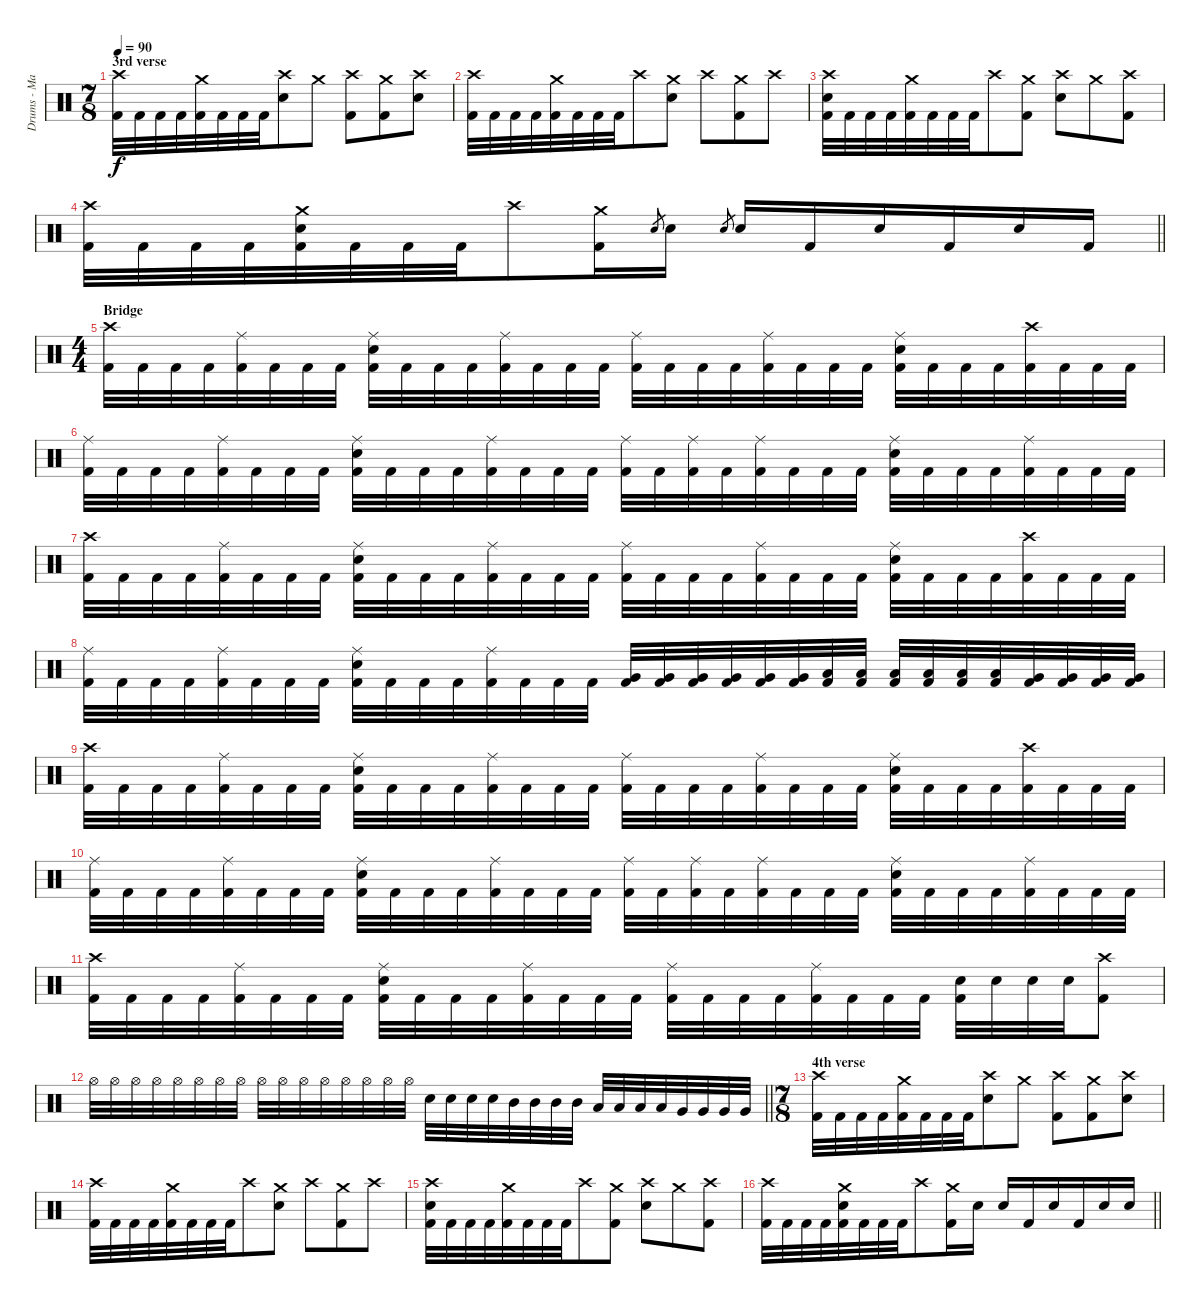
\track ("Drums - Mario Duplantier" "Drums - Ma") {instrument percussion}
\staff {score}
\articulation defaults
\ts (7 8)
\section ("" "3rd verse")
\tempo 90
\clef neutral
\ks c
("Crash high (hit)" "Kick (hit) 2").32{dy f} "Kick (hit) 2".32 "Kick (hit) 2".32 "Kick (hit) 2".32 ("Crash medium (hit)" "Kick (hit) 2").32 "Kick (hit) 2".32 "Kick (hit) 2".32 "Kick (hit) 2".32 ("Crash high (hit)" "Electric Snare (hit)").8 "Crash medium (hit)".8 ("Crash high (hit)" "Kick (hit) 2").8 ("Crash medium (hit)" "Kick (hit) 2").8 ("Crash high (hit)" "Electric Snare (hit)").8 |
("Crash high (hit)" "Kick (hit) 2").32 "Kick (hit) 2".32 "Kick (hit) 2".32 "Kick (hit) 2".32 ("Crash medium (hit)" "Kick (hit) 2").32 "Kick (hit) 2".32 "Kick (hit) 2".32 "Kick (hit) 2".32 "Crash high (hit)".8 ("Crash medium (hit)" "Electric Snare (hit)").8 "Crash high (hit)".8 ("Crash medium (hit)" "Kick (hit) 2").8 "Crash high (hit)".8 |
("Crash high (hit)" "Electric Snare (hit)" "Kick (hit) 2").32 "Kick (hit) 2".32 "Kick (hit) 2".32 "Kick (hit) 2".32 ("Crash medium (hit)" "Kick (hit) 2").32 "Kick (hit) 2".32 "Kick (hit) 2".32 "Kick (hit) 2".32 "Crash high (hit)".8 ("Crash medium (hit)" "Kick (hit) 2").8 ("Crash high (hit)" "Electric Snare (hit)").8 "Crash medium (hit)".8 ("Crash high (hit)" "Kick (hit) 2").8 |
\barLineRight lightlight
("Crash high (hit)" "Kick (hit) 2").32 "Kick (hit) 2".32 "Kick (hit) 2".32 "Kick (hit) 2".32 ("Crash medium (hit)" "Electric Snare (hit)" "Kick (hit) 2").32 "Kick (hit) 2".32 "Kick (hit) 2".32 "Kick (hit) 2".32 "Crash high (hit)".8 ("Crash medium (hit)" "Kick (hit) 2").16 "Electric Snare (hit)".8{gr} "Electric Snare (hit)".16 "Electric Snare (hit)".8{gr} "Electric Snare (hit)".16 "Kick (hit) 2".16 "Electric Snare (hit)".16 "Kick (hit) 2".16 "Electric Snare (hit)".16 "Kick (hit) 2".16 |
\ts (4 4)
\section ("" "Bridge")
("Crash high (hit)" "Kick (hit) 2").32 "Kick (hit) 2".32 "Kick (hit) 2".32 "Kick (hit) 2".32 ("Ride (middle)" "Kick (hit) 2").32 "Kick (hit) 2".32 "Kick (hit) 2".32 "Kick (hit) 2".32 ("Ride (middle)" "Electric Snare (hit)" "Kick (hit) 2").32 "Kick (hit) 2".32 "Kick (hit) 2".32 "Kick (hit) 2".32 ("Ride (middle)" "Kick (hit) 2").32 "Kick (hit) 2".32 "Kick (hit) 2".32 "Kick (hit) 2".32 ("Ride (middle)" "Kick (hit) 2").32 "Kick (hit) 2".32 "Kick (hit) 2".32 "Kick (hit) 2".32 ("Ride (middle)" "Kick (hit) 2").32 "Kick (hit) 2".32 "Kick (hit) 2".32 "Kick (hit) 2".32 ("Ride (middle)" "Electric Snare (hit)" "Kick (hit) 2").32 "Kick (hit) 2".32 "Kick (hit) 2".32 "Kick (hit) 2".32 ("Crash high (hit)" "Kick (hit) 2").32 "Kick (hit) 2".32 "Kick (hit) 2".32 "Kick (hit) 2".32 |
("Ride (middle)" "Kick (hit) 2").32 "Kick (hit) 2".32 "Kick (hit) 2".32 "Kick (hit) 2".32 ("Ride (middle)" "Kick (hit) 2").32 "Kick (hit) 2".32 "Kick (hit) 2".32 "Kick (hit) 2".32 ("Ride (middle)" "Electric Snare (hit)" "Kick (hit) 2").32 "Kick (hit) 2".32 "Kick (hit) 2".32 "Kick (hit) 2".32 ("Ride (middle)" "Kick (hit) 2").32 "Kick (hit) 2".32 "Kick (hit) 2".32 "Kick (hit) 2".32 ("Ride (middle)" "Kick (hit) 2").32 "Kick (hit) 2".32 ("Ride (middle)" "Kick (hit) 2").32 "Kick (hit) 2".32 ("Ride (middle)" "Kick (hit) 2").32 "Kick (hit) 2".32 "Kick (hit) 2".32 "Kick (hit) 2".32 ("Ride (middle)" "Electric Snare (hit)" "Kick (hit) 2").32 "Kick (hit) 2".32 "Kick (hit) 2".32 "Kick (hit) 2".32 ("Ride (middle)" "Kick (hit) 2").32 "Kick (hit) 2".32 "Kick (hit) 2".32 "Kick (hit) 2".32 |
("Crash high (hit)" "Kick (hit) 2").32 "Kick (hit) 2".32 "Kick (hit) 2".32 "Kick (hit) 2".32 ("Ride (middle)" "Kick (hit) 2").32 "Kick (hit) 2".32 "Kick (hit) 2".32 "Kick (hit) 2".32 ("Ride (middle)" "Electric Snare (hit)" "Kick (hit) 2").32 "Kick (hit) 2".32 "Kick (hit) 2".32 "Kick (hit) 2".32 ("Ride (middle)" "Kick (hit) 2").32 "Kick (hit) 2".32 "Kick (hit) 2".32 "Kick (hit) 2".32 ("Ride (middle)" "Kick (hit) 2").32 "Kick (hit) 2".32 "Kick (hit) 2".32 "Kick (hit) 2".32 ("Ride (middle)" "Kick (hit) 2").32 "Kick (hit) 2".32 "Kick (hit) 2".32 "Kick (hit) 2".32 ("Ride (middle)" "Electric Snare (hit)" "Kick (hit) 2").32 "Kick (hit) 2".32 "Kick (hit) 2".32 "Kick (hit) 2".32 ("Crash high (hit)" "Kick (hit) 2").32 "Kick (hit) 2".32 "Kick (hit) 2".32 "Kick (hit) 2".32 |
("Ride (middle)" "Kick (hit) 2").32 "Kick (hit) 2".32 "Kick (hit) 2".32 "Kick (hit) 2".32 ("Ride (middle)" "Kick (hit) 2").32 "Kick (hit) 2".32 "Kick (hit) 2".32 "Kick (hit) 2".32 ("Ride (middle)" "Electric Snare (hit)" "Kick (hit) 2").32 "Kick (hit) 2".32 "Kick (hit) 2".32 "Kick (hit) 2".32 ("Ride (middle)" "Kick (hit) 2").32 "Kick (hit) 2".32 "Kick (hit) 2".32 "Kick (hit) 2".32 ("Very Low Tom (hit)" "Kick (hit) 2").32 ("Very Low Tom (hit)" "Kick (hit) 2").32 ("Very Low Tom (hit)" "Kick (hit) 2").32 ("Very Low Tom (hit)" "Kick (hit) 2").32 ("Very Low Tom (hit)" "Kick (hit) 2").32 ("Very Low Tom (hit)" "Kick (hit) 2").32 ("Low Tom (hit)" "Kick (hit) 2").32 ("Low Tom (hit)" "Kick (hit) 2").32 ("Low Tom (hit)" "Kick (hit) 2").32 ("Low Tom (hit)" "Kick (hit) 2").32 ("Low Tom (hit)" "Kick (hit) 2").32 ("Low Tom (hit)" "Kick (hit) 2").32 ("Very Low Tom (hit)" "Kick (hit) 2").32 ("Very Low Tom (hit)" "Kick (hit) 2").32 ("Very Low Tom (hit)" "Kick (hit) 2").32 ("Very Low Tom (hit)" "Kick (hit) 2").32 |
("Crash high (hit)" "Kick (hit) 2").32 "Kick (hit) 2".32 "Kick (hit) 2".32 "Kick (hit) 2".32 ("Ride (middle)" "Kick (hit) 2").32 "Kick (hit) 2".32 "Kick (hit) 2".32 "Kick (hit) 2".32 ("Ride (middle)" "Electric Snare (hit)" "Kick (hit) 2").32 "Kick (hit) 2".32 "Kick (hit) 2".32 "Kick (hit) 2".32 ("Ride (middle)" "Kick (hit) 2").32 "Kick (hit) 2".32 "Kick (hit) 2".32 "Kick (hit) 2".32 ("Ride (middle)" "Kick (hit) 2").32 "Kick (hit) 2".32 "Kick (hit) 2".32 "Kick (hit) 2".32 ("Ride (middle)" "Kick (hit) 2").32 "Kick (hit) 2".32 "Kick (hit) 2".32 "Kick (hit) 2".32 ("Ride (middle)" "Electric Snare (hit)" "Kick (hit) 2").32 "Kick (hit) 2".32 "Kick (hit) 2".32 "Kick (hit) 2".32 ("Crash high (hit)" "Kick (hit) 2").32 "Kick (hit) 2".32 "Kick (hit) 2".32 "Kick (hit) 2".32 |
("Ride (middle)" "Kick (hit) 2").32 "Kick (hit) 2".32 "Kick (hit) 2".32 "Kick (hit) 2".32 ("Ride (middle)" "Kick (hit) 2").32 "Kick (hit) 2".32 "Kick (hit) 2".32 "Kick (hit) 2".32 ("Ride (middle)" "Electric Snare (hit)" "Kick (hit) 2").32 "Kick (hit) 2".32 "Kick (hit) 2".32 "Kick (hit) 2".32 ("Ride (middle)" "Kick (hit) 2").32 "Kick (hit) 2".32 "Kick (hit) 2".32 "Kick (hit) 2".32 ("Ride (middle)" "Kick (hit) 2").32 "Kick (hit) 2".32 ("Ride (middle)" "Kick (hit) 2").32 "Kick (hit) 2".32 ("Ride (middle)" "Kick (hit) 2").32 "Kick (hit) 2".32 "Kick (hit) 2".32 "Kick (hit) 2".32 ("Ride (middle)" "Electric Snare (hit)" "Kick (hit) 2").32 "Kick (hit) 2".32 "Kick (hit) 2".32 "Kick (hit) 2".32 ("Ride (middle)" "Kick (hit) 2").32 "Kick (hit) 2".32 "Kick (hit) 2".32 "Kick (hit) 2".32 |
("Crash high (hit)" "Kick (hit) 2").32 "Kick (hit) 2".32 "Kick (hit) 2".32 "Kick (hit) 2".32 ("Ride (middle)" "Kick (hit) 2").32 "Kick (hit) 2".32 "Kick (hit) 2".32 "Kick (hit) 2".32 ("Ride (middle)" "Electric Snare (hit)" "Kick (hit) 2").32 "Kick (hit) 2".32 "Kick (hit) 2".32 "Kick (hit) 2".32 ("Ride (middle)" "Kick (hit) 2").32 "Kick (hit) 2".32 "Kick (hit) 2".32 "Kick (hit) 2".32 ("Ride (middle)" "Kick (hit) 2").32 "Kick (hit) 2".32 "Kick (hit) 2".32 "Kick (hit) 2".32 ("Ride (middle)" "Kick (hit) 2").32 "Kick (hit) 2".32 "Kick (hit) 2".32 "Kick (hit) 2".32 ("Electric Snare (hit)" "Kick (hit) 2").32 "Electric Snare (hit)".32 "Electric Snare (hit)".32 "Electric Snare (hit)".32 ("Crash high (hit)" "Kick (hit) 2").8 |
\barLineRight lightlight "Hi-Hat (open)".32 "Hi-Hat (open)".32 "Hi-Hat (open)".32 "Hi-Hat (open)".32 "Hi-Hat (open)".32 "Hi-Hat (open)".32 "Hi-Hat (open)".32 "Hi-Hat (open)".32 "Hi-Hat (open)".32 "Hi-Hat (open)".32 "Hi-Hat (open)".32 "Hi-Hat (open)".32 "Hi-Hat (open)".32 "Hi-Hat (open)".32 "Hi-Hat (open)".32 "Hi-Hat (open)".32 "Electric Snare (hit)".32 "Electric Snare (hit)".32 "Electric Snare (hit)".32 "Electric Snare (hit)".32 "Mid Tom (hit)".32 "Mid Tom (hit)".32 "Mid Tom (hit)".32 "Mid Tom (hit)".32 "Low Tom (hit)".32 "Low Tom (hit)".32 "Low Tom (hit)".32 "Low Tom (hit)".32 "Very Low Tom (hit)".32 "Very Low Tom (hit)".32 "Very Low Tom (hit)".32 "Very Low Tom (hit)".32
|
\ts (7 8)
\section ("" "4th verse")
("Crash high (hit)" "Kick (hit) 2").32 "Kick (hit) 2".32 "Kick (hit) 2".32 "Kick (hit) 2".32 ("Crash medium (hit)" "Kick (hit) 2").32 "Kick (hit) 2".32 "Kick (hit) 2".32 "Kick (hit) 2".32 ("Crash high (hit)" "Electric Snare (hit)").8 "Crash medium (hit)".8 ("Crash high (hit)" "Kick (hit) 2").8 ("Crash medium (hit)" "Kick (hit) 2").8 ("Crash high (hit)" "Electric Snare (hit)").8 |
("Crash high (hit)" "Kick (hit) 2").32 "Kick (hit) 2".32 "Kick (hit) 2".32 "Kick (hit) 2".32 ("Crash medium (hit)" "Kick (hit) 2").32 "Kick (hit) 2".32 "Kick (hit) 2".32 "Kick (hit) 2".32 "Crash high (hit)".8 ("Crash medium (hit)" "Electric Snare (hit)").8 "Crash high (hit)".8 ("Crash medium (hit)" "Kick (hit) 2").8 "Crash high (hit)".8 |
("Crash high (hit)" "Electric Snare (hit)" "Kick (hit) 2").32 "Kick (hit) 2".32 "Kick (hit) 2".32 "Kick (hit) 2".32 ("Crash medium (hit)" "Kick (hit) 2").32 "Kick (hit) 2".32 "Kick (hit) 2".32 "Kick (hit) 2".32 "Crash high (hit)".8 ("Crash medium (hit)" "Kick (hit) 2").8 ("Crash high (hit)" "Electric Snare (hit)").8 "Crash medium (hit)".8 ("Crash high (hit)" "Kick (hit) 2").8 |
\barLineRight lightlight
("Crash high (hit)" "Kick (hit) 2").32 "Kick (hit) 2".32 "Kick (hit) 2".32 "Kick (hit) 2".32 ("Crash medium (hit)" "Electric Snare (hit)" "Kick (hit) 2").32 "Kick (hit) 2".32 "Kick (hit) 2".32 "Kick (hit) 2".32 "Crash high (hit)".8 ("Crash medium (hit)" "Kick (hit) 2").16 "Electric Snare (hit)".16 "Electric Snare (hit)".16 "Kick (hit) 2".16 "Electric Snare (hit)".16 "Kick (hit) 2".16 "Electric Snare (hit)".16 "Electric Snare (hit)".16
